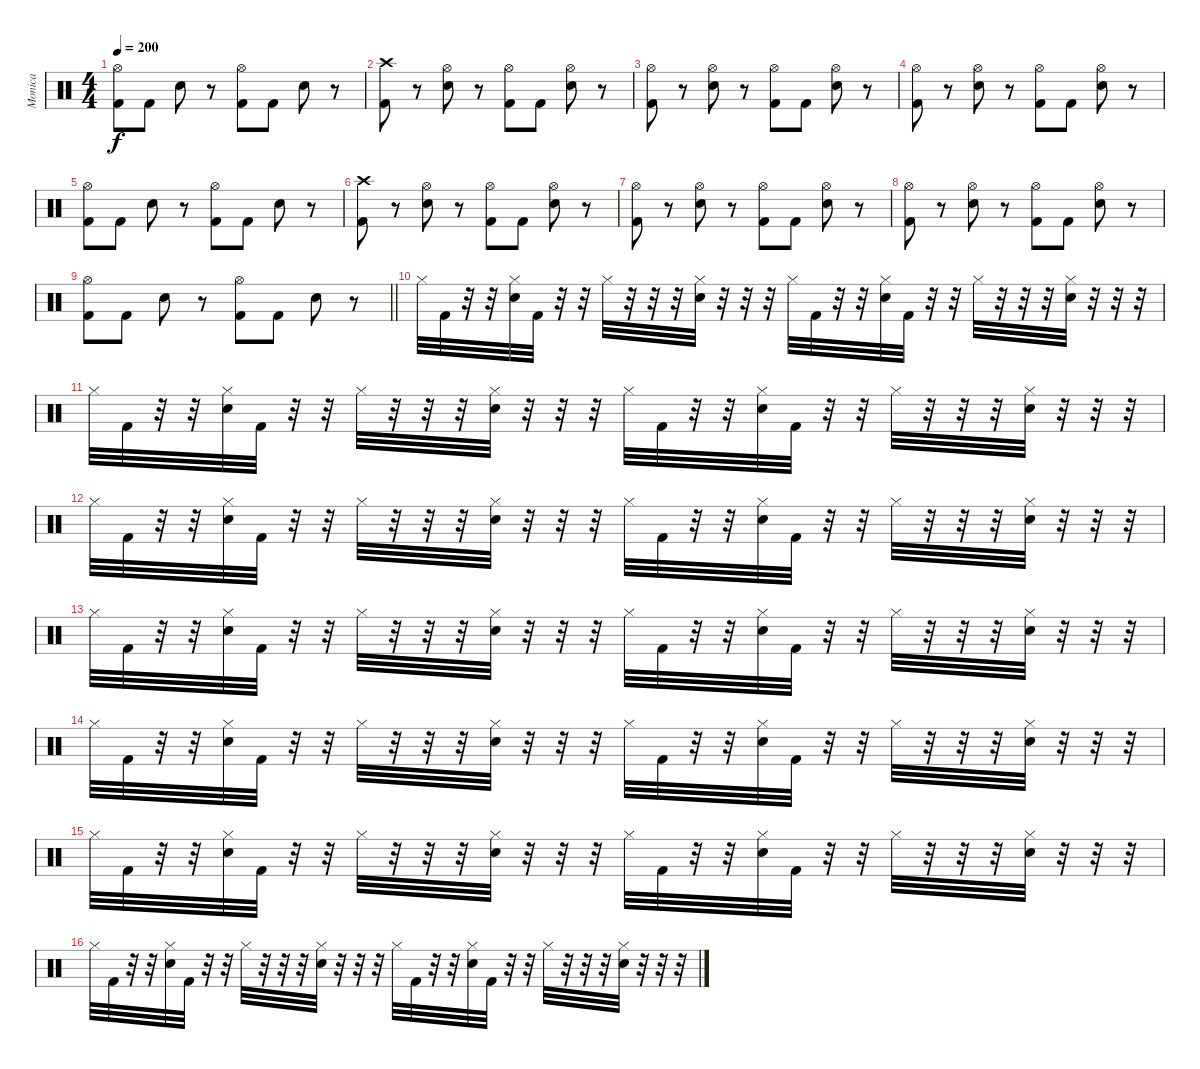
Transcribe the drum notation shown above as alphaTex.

\track ("Monica" "Monica") {instrument percussion}
\staff {score}
\articulation defaults
\ts (4 4)
\tempo 200
\clef neutral
\ks c
("Hi-Hat (open)" "Kick (hit) 2").8{dy f} "Kick (hit) 2".8 "Snare (hit) 2".8 r.8 ("Hi-Hat (open)" "Kick (hit) 2").8 "Kick (hit) 2".8 "Snare (hit) 2".8 r.8 |
("Crash high (hit)" "Kick (hit) 2").8 r.8 ("Hi-Hat (open)" "Snare (hit) 2").8 r.8 ("Hi-Hat (open)" "Kick (hit) 2").8 "Kick (hit) 2".8 ("Hi-Hat (open)" "Snare (hit) 2").8 r.8 |
("Hi-Hat (open)" "Kick (hit) 2").8 r.8 ("Hi-Hat (open)" "Snare (hit) 2").8 r.8 ("Hi-Hat (open)" "Kick (hit) 2").8 "Kick (hit) 2".8 ("Hi-Hat (open)" "Snare (hit) 2").8 r.8 |
("Hi-Hat (open)" "Kick (hit) 2").8 r.8 ("Hi-Hat (open)" "Snare (hit) 2").8 r.8 ("Hi-Hat (open)" "Kick (hit) 2").8 "Kick (hit) 2".8 ("Hi-Hat (open)" "Snare (hit) 2").8 r.8 |
("Hi-Hat (open)" "Kick (hit) 2").8 "Kick (hit) 2".8 "Snare (hit) 2".8 r.8 ("Hi-Hat (open)" "Kick (hit) 2").8 "Kick (hit) 2".8 "Snare (hit) 2".8 r.8 |
("Crash high (hit)" "Kick (hit) 2").8 r.8 ("Hi-Hat (open)" "Snare (hit) 2").8 r.8 ("Hi-Hat (open)" "Kick (hit) 2").8 "Kick (hit) 2".8 ("Hi-Hat (open)" "Snare (hit) 2").8 r.8 |
("Hi-Hat (open)" "Kick (hit) 2").8 r.8 ("Hi-Hat (open)" "Snare (hit) 2").8 r.8 ("Hi-Hat (open)" "Kick (hit) 2").8 "Kick (hit) 2".8 ("Hi-Hat (open)" "Snare (hit) 2").8 r.8 |
("Hi-Hat (open)" "Kick (hit) 2").8 r.8 ("Hi-Hat (open)" "Snare (hit) 2").8 r.8 ("Hi-Hat (open)" "Kick (hit) 2").8 "Kick (hit) 2".8 ("Hi-Hat (open)" "Snare (hit) 2").8 r.8 |
\barLineRight lightlight
("Hi-Hat (open)" "Kick (hit) 2").8 "Kick (hit) 2".8 "Snare (hit) 2".8 r.8 ("Hi-Hat (open)" "Kick (hit) 2").8 "Kick (hit) 2".8 "Snare (hit) 2".8 r.8 |
\section ("" "")
"Hi-Hat (closed)".32 "Kick (hit) 2".32 r.32 r.32 ("Hi-Hat (closed)" "Snare (hit) 2").32 "Kick (hit) 2".32 r.32 r.32 "Hi-Hat (closed)".32 r.32 r.32 r.32 ("Hi-Hat (closed)" "Snare (hit) 2").32 r.32 r.32 r.32 "Hi-Hat (closed)".32 "Kick (hit) 2".32 r.32 r.32 ("Hi-Hat (closed)" "Snare (hit) 2").32 "Kick (hit) 2".32 r.32 r.32 "Hi-Hat (closed)".32 r.32 r.32 r.32 ("Hi-Hat (closed)" "Snare (hit) 2").32 r.32 r.32 r.32 |
"Hi-Hat (closed)".32 "Kick (hit) 2".32 r.32 r.32 ("Hi-Hat (closed)" "Snare (hit) 2").32 "Kick (hit) 2".32 r.32 r.32 "Hi-Hat (closed)".32 r.32 r.32 r.32 ("Hi-Hat (closed)" "Snare (hit) 2").32 r.32 r.32 r.32 "Hi-Hat (closed)".32 "Kick (hit) 2".32 r.32 r.32 ("Hi-Hat (closed)" "Snare (hit) 2").32 "Kick (hit) 2".32 r.32 r.32 "Hi-Hat (closed)".32 r.32 r.32 r.32 ("Hi-Hat (closed)" "Snare (hit) 2").32 r.32 r.32 r.32 |
"Hi-Hat (closed)".32 "Kick (hit) 2".32 r.32 r.32 ("Hi-Hat (closed)" "Snare (hit) 2").32 "Kick (hit) 2".32 r.32 r.32 "Hi-Hat (closed)".32 r.32 r.32 r.32 ("Hi-Hat (closed)" "Snare (hit) 2").32 r.32 r.32 r.32 "Hi-Hat (closed)".32 "Kick (hit) 2".32 r.32 r.32 ("Hi-Hat (closed)" "Snare (hit) 2").32 "Kick (hit) 2".32 r.32 r.32 "Hi-Hat (closed)".32 r.32 r.32 r.32 ("Hi-Hat (closed)" "Snare (hit) 2").32 r.32 r.32 r.32 |
"Hi-Hat (closed)".32 "Kick (hit) 2".32 r.32 r.32 ("Hi-Hat (closed)" "Snare (hit) 2").32 "Kick (hit) 2".32 r.32 r.32 "Hi-Hat (closed)".32 r.32 r.32 r.32 ("Hi-Hat (closed)" "Snare (hit) 2").32 r.32 r.32 r.32 "Hi-Hat (closed)".32 "Kick (hit) 2".32 r.32 r.32 ("Hi-Hat (closed)" "Snare (hit) 2").32 "Kick (hit) 2".32 r.32 r.32 "Hi-Hat (closed)".32 r.32 r.32 r.32 ("Hi-Hat (closed)" "Snare (hit) 2").32 r.32 r.32 r.32 |
"Hi-Hat (closed)".32 "Kick (hit) 2".32 r.32 r.32 ("Hi-Hat (closed)" "Snare (hit) 2").32 "Kick (hit) 2".32 r.32 r.32 "Hi-Hat (closed)".32 r.32 r.32 r.32 ("Hi-Hat (closed)" "Snare (hit) 2").32 r.32 r.32 r.32 "Hi-Hat (closed)".32 "Kick (hit) 2".32 r.32 r.32 ("Hi-Hat (closed)" "Snare (hit) 2").32 "Kick (hit) 2".32 r.32 r.32 "Hi-Hat (closed)".32 r.32 r.32 r.32 ("Hi-Hat (closed)" "Snare (hit) 2").32 r.32 r.32 r.32 |
"Hi-Hat (closed)".32 "Kick (hit) 2".32 r.32 r.32 ("Hi-Hat (closed)" "Snare (hit) 2").32 "Kick (hit) 2".32 r.32 r.32 "Hi-Hat (closed)".32 r.32 r.32 r.32 ("Hi-Hat (closed)" "Snare (hit) 2").32 r.32 r.32 r.32 "Hi-Hat (closed)".32 "Kick (hit) 2".32 r.32 r.32 ("Hi-Hat (closed)" "Snare (hit) 2").32 "Kick (hit) 2".32 r.32 r.32 "Hi-Hat (closed)".32 r.32 r.32 r.32 ("Hi-Hat (closed)" "Snare (hit) 2").32 r.32 r.32 r.32 |
"Hi-Hat (closed)".32 "Kick (hit) 2".32 r.32 r.32 ("Hi-Hat (closed)" "Snare (hit) 2").32 "Kick (hit) 2".32 r.32 r.32 "Hi-Hat (closed)".32 r.32 r.32 r.32 ("Hi-Hat (closed)" "Snare (hit) 2").32 r.32 r.32 r.32 "Hi-Hat (closed)".32 "Kick (hit) 2".32 r.32 r.32 ("Hi-Hat (closed)" "Snare (hit) 2").32 "Kick (hit) 2".32 r.32 r.32 "Hi-Hat (closed)".32 r.32 r.32 r.32 ("Hi-Hat (closed)" "Snare (hit) 2").32 r.32 r.32 r.32
